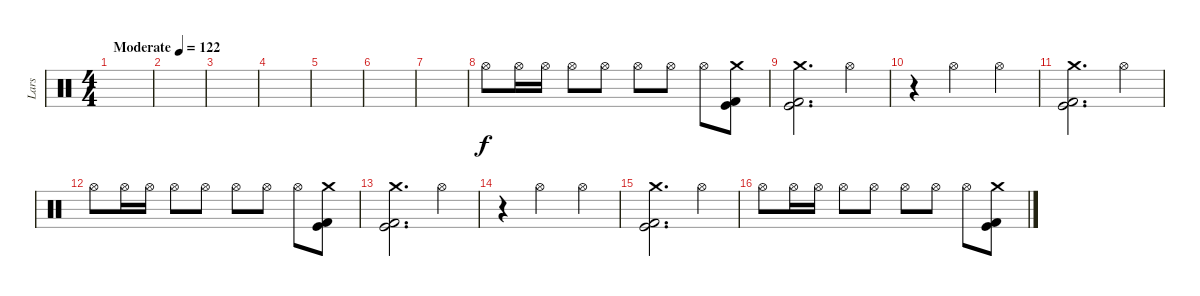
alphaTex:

\track ("Lars" "Lars") {instrument percussion}
\staff {score}
\articulation defaults
\ts (4 4)
\tempo (122 "Moderate")
\clef neutral
\ks c
|
|
|
|
|
|
|
"Hi-Hat (open)".8 "Hi-Hat (open)".16 "Hi-Hat (open)".16 "Hi-Hat (open)".8 "Hi-Hat (open)".8 "Hi-Hat (open)".8 "Hi-Hat (open)".8 "Hi-Hat (open)".8 ("Crash medium (hit)" "Kick (hit)" "Kick (hit) 2").8 |
("Crash medium (hit)" "Kick (hit)" "Kick (hit) 2").2{d} "Hi-Hat (open)".4 |
r.4 "Hi-Hat (open)".2 "Hi-Hat (open)".4 |
("Crash medium (hit)" "Kick (hit)" "Kick (hit) 2").2{d} "Hi-Hat (open)".4 |
"Hi-Hat (open)".8 "Hi-Hat (open)".16 "Hi-Hat (open)".16 "Hi-Hat (open)".8 "Hi-Hat (open)".8 "Hi-Hat (open)".8 "Hi-Hat (open)".8 "Hi-Hat (open)".8 ("Crash medium (hit)" "Kick (hit)" "Kick (hit) 2").8 |
("Crash medium (hit)" "Kick (hit)" "Kick (hit) 2").2{d} "Hi-Hat (open)".4 |
r.4 "Hi-Hat (open)".2 "Hi-Hat (open)".4 |
("Crash medium (hit)" "Kick (hit)" "Kick (hit) 2").2{d} "Hi-Hat (open)".4 |
"Hi-Hat (open)".8 "Hi-Hat (open)".16 "Hi-Hat (open)".16 "Hi-Hat (open)".8 "Hi-Hat (open)".8 "Hi-Hat (open)".8 "Hi-Hat (open)".8 "Hi-Hat (open)".8 ("Crash medium (hit)" "Kick (hit)" "Kick (hit) 2").8
